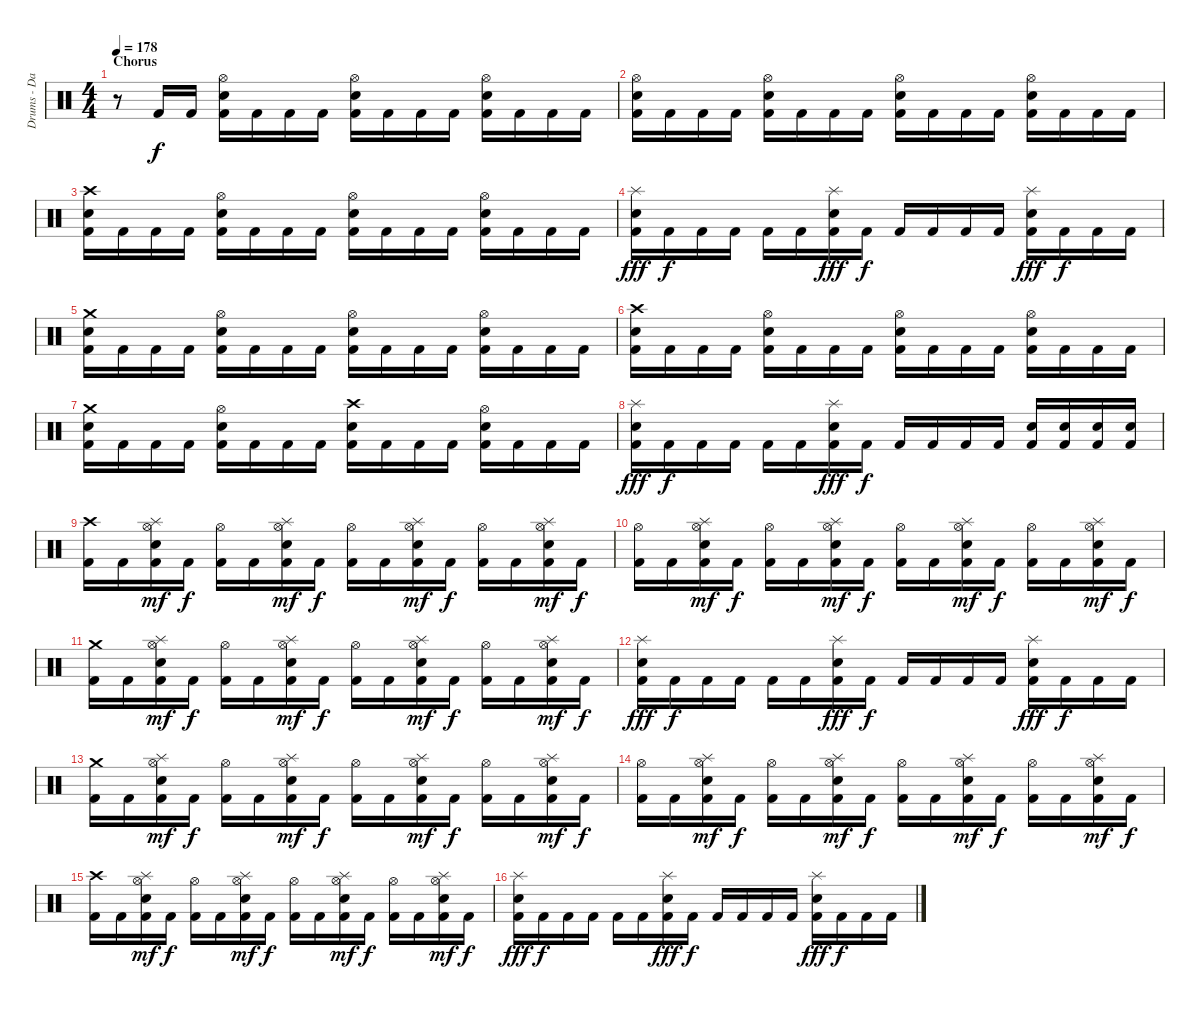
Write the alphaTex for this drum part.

\track ("Drums - Daniel Zimmermann" "Drums - Da") {instrument percussion}
\staff {score}
\articulation defaults
\ts (4 4)
\section ("" "Chorus")
\tempo 178
\clef neutral
\ks c
r.8{dy f} "Kick (hit) 2".16 "Kick (hit) 2".16 ("Kick (hit) 2" "Electric Snare (hit)" "Hi-Hat (open)").16 "Kick (hit) 2".16 "Kick (hit) 2".16 "Kick (hit) 2".16 ("Kick (hit) 2" "Electric Snare (hit)" "Hi-Hat (open)").16 "Kick (hit) 2".16 "Kick (hit) 2".16 "Kick (hit) 2".16 ("Kick (hit) 2" "Electric Snare (hit)" "Hi-Hat (open)").16 "Kick (hit) 2".16 "Kick (hit) 2".16 "Kick (hit) 2".16 |
("Kick (hit) 2" "Electric Snare (hit)" "Hi-Hat (open)").16 "Kick (hit) 2".16 "Kick (hit) 2".16 "Kick (hit) 2".16 ("Kick (hit) 2" "Electric Snare (hit)" "Hi-Hat (open)").16 "Kick (hit) 2".16 "Kick (hit) 2".16 "Kick (hit) 2".16 ("Kick (hit) 2" "Electric Snare (hit)" "Hi-Hat (open)").16 "Kick (hit) 2".16 "Kick (hit) 2".16 "Kick (hit) 2".16 ("Kick (hit) 2" "Electric Snare (hit)" "Hi-Hat (open)").16 "Kick (hit) 2".16 "Kick (hit) 2".16 "Kick (hit) 2".16 |
("Kick (hit) 2" "Electric Snare (hit)" "Crash high (hit)").16 "Kick (hit) 2".16 "Kick (hit) 2".16 "Kick (hit) 2".16 ("Kick (hit) 2" "Electric Snare (hit)" "Hi-Hat (open)").16 "Kick (hit) 2".16 "Kick (hit) 2".16 "Kick (hit) 2".16 ("Kick (hit) 2" "Electric Snare (hit)" "Hi-Hat (open)").16 "Kick (hit) 2".16 "Kick (hit) 2".16 "Kick (hit) 2".16 ("Kick (hit) 2" "Electric Snare (hit)" "Hi-Hat (open)").16 "Kick (hit) 2".16 "Kick (hit) 2".16 "Kick (hit) 2".16 |
("Kick (hit) 2" "Electric Snare (hit)" "Splash (hit)").16{dy fff} "Kick (hit) 2".16{dy f} "Kick (hit) 2".16 "Kick (hit) 2".16 "Kick (hit) 2".16 "Kick (hit) 2".16 ("Kick (hit) 2" "Electric Snare (hit)" "Splash (hit)").16{dy fff} "Kick (hit) 2".16{dy f} "Kick (hit) 2".16 "Kick (hit) 2".16 "Kick (hit) 2".16 "Kick (hit) 2".16 ("Kick (hit) 2" "Electric Snare (hit)" "Splash (hit)").16{dy fff} "Kick (hit) 2".16{dy f} "Kick (hit) 2".16 "Kick (hit) 2".16 |
("Kick (hit) 2" "Electric Snare (hit)" "Crash medium (hit)").16 "Kick (hit) 2".16 "Kick (hit) 2".16 "Kick (hit) 2".16 ("Kick (hit) 2" "Electric Snare (hit)" "Hi-Hat (open)").16 "Kick (hit) 2".16 "Kick (hit) 2".16 "Kick (hit) 2".16 ("Kick (hit) 2" "Electric Snare (hit)" "Hi-Hat (open)").16 "Kick (hit) 2".16 "Kick (hit) 2".16 "Kick (hit) 2".16 ("Kick (hit) 2" "Electric Snare (hit)" "Hi-Hat (open)").16 "Kick (hit) 2".16 "Kick (hit) 2".16 "Kick (hit) 2".16 |
("Kick (hit) 2" "Electric Snare (hit)" "Crash high (hit)").16 "Kick (hit) 2".16 "Kick (hit) 2".16 "Kick (hit) 2".16 ("Kick (hit) 2" "Electric Snare (hit)" "Hi-Hat (open)").16 "Kick (hit) 2".16 "Kick (hit) 2".16 "Kick (hit) 2".16 ("Kick (hit) 2" "Electric Snare (hit)" "Hi-Hat (open)").16 "Kick (hit) 2".16 "Kick (hit) 2".16 "Kick (hit) 2".16 ("Kick (hit) 2" "Electric Snare (hit)" "Hi-Hat (open)").16 "Kick (hit) 2".16 "Kick (hit) 2".16 "Kick (hit) 2".16 |
("Kick (hit) 2" "Electric Snare (hit)" "Crash medium (hit)").16 "Kick (hit) 2".16 "Kick (hit) 2".16 "Kick (hit) 2".16 ("Kick (hit) 2" "Electric Snare (hit)" "Hi-Hat (open)").16 "Kick (hit) 2".16 "Kick (hit) 2".16 "Kick (hit) 2".16 ("Kick (hit) 2" "Electric Snare (hit)" "Crash high (hit)").16 "Kick (hit) 2".16 "Kick (hit) 2".16 "Kick (hit) 2".16 ("Kick (hit) 2" "Electric Snare (hit)" "Hi-Hat (open)").16 "Kick (hit) 2".16 "Kick (hit) 2".16 "Kick (hit) 2".16 |
("Kick (hit) 2" "Electric Snare (hit)" "Splash (hit)").16{dy fff} "Kick (hit) 2".16{dy f} "Kick (hit) 2".16 "Kick (hit) 2".16 "Kick (hit) 2".16 "Kick (hit) 2".16 ("Kick (hit) 2" "Electric Snare (hit)" "Splash (hit)").16{dy fff} "Kick (hit) 2".16{dy f} "Kick (hit) 2".16 "Kick (hit) 2".16 "Kick (hit) 2".16 "Kick (hit) 2".16 ("Kick (hit) 2" "Electric Snare (hit)").16 ("Kick (hit) 2" "Electric Snare (hit)").16 ("Kick (hit) 2" "Electric Snare (hit)").16 ("Kick (hit) 2" "Electric Snare (hit)").16 |
("Kick (hit) 2" "Crash high (hit)").16 "Kick (hit) 2".16 ("Kick (hit) 2" "Electric Snare (hit)" "Hi-Hat (open)" "Splash (hit)").16{dy mf} "Kick (hit) 2".16{dy f} ("Kick (hit) 2" "Hi-Hat (open)").16 "Kick (hit) 2".16 ("Kick (hit) 2" "Electric Snare (hit)" "Hi-Hat (open)" "Splash (hit)").16{dy mf} "Kick (hit) 2".16{dy f} ("Kick (hit) 2" "Hi-Hat (open)").16 "Kick (hit) 2".16 ("Kick (hit) 2" "Electric Snare (hit)" "Hi-Hat (open)" "Splash (hit)").16{dy mf} "Kick (hit) 2".16{dy f} ("Kick (hit) 2" "Hi-Hat (open)").16 "Kick (hit) 2".16 ("Kick (hit) 2" "Electric Snare (hit)" "Hi-Hat (open)" "Splash (hit)").16{dy mf} "Kick (hit) 2".16{dy f} |
("Kick (hit) 2" "Hi-Hat (open)").16 "Kick (hit) 2".16 ("Kick (hit) 2" "Electric Snare (hit)" "Hi-Hat (open)" "Splash (hit)").16{dy mf} "Kick (hit) 2".16{dy f} ("Kick (hit) 2" "Hi-Hat (open)").16 "Kick (hit) 2".16 ("Kick (hit) 2" "Electric Snare (hit)" "Hi-Hat (open)" "Splash (hit)").16{dy mf} "Kick (hit) 2".16{dy f} ("Kick (hit) 2" "Hi-Hat (open)").16 "Kick (hit) 2".16 ("Kick (hit) 2" "Electric Snare (hit)" "Hi-Hat (open)" "Splash (hit)").16{dy mf} "Kick (hit) 2".16{dy f} ("Kick (hit) 2" "Hi-Hat (open)").16 "Kick (hit) 2".16 ("Kick (hit) 2" "Electric Snare (hit)" "Hi-Hat (open)" "Splash (hit)").16{dy mf} "Kick (hit) 2".16{dy f} |
("Kick (hit) 2" "Crash medium (hit)").16 "Kick (hit) 2".16 ("Kick (hit) 2" "Electric Snare (hit)" "Hi-Hat (open)" "Splash (hit)").16{dy mf} "Kick (hit) 2".16{dy f} ("Kick (hit) 2" "Hi-Hat (open)").16 "Kick (hit) 2".16 ("Kick (hit) 2" "Electric Snare (hit)" "Hi-Hat (open)" "Splash (hit)").16{dy mf} "Kick (hit) 2".16{dy f} ("Kick (hit) 2" "Hi-Hat (open)").16 "Kick (hit) 2".16 ("Kick (hit) 2" "Electric Snare (hit)" "Hi-Hat (open)" "Splash (hit)").16{dy mf} "Kick (hit) 2".16{dy f} ("Kick (hit) 2" "Hi-Hat (open)").16 "Kick (hit) 2".16 ("Kick (hit) 2" "Electric Snare (hit)" "Hi-Hat (open)" "Splash (hit)").16{dy mf} "Kick (hit) 2".16{dy f} |
("Kick (hit) 2" "Electric Snare (hit)" "Splash (hit)").16{dy fff} "Kick (hit) 2".16{dy f} "Kick (hit) 2".16 "Kick (hit) 2".16 "Kick (hit) 2".16 "Kick (hit) 2".16 ("Kick (hit) 2" "Electric Snare (hit)" "Splash (hit)").16{dy fff} "Kick (hit) 2".16{dy f} "Kick (hit) 2".16 "Kick (hit) 2".16 "Kick (hit) 2".16 "Kick (hit) 2".16 ("Kick (hit) 2" "Electric Snare (hit)" "Splash (hit)").16{dy fff} "Kick (hit) 2".16{dy f} "Kick (hit) 2".16 "Kick (hit) 2".16 |
("Kick (hit) 2" "Crash medium (hit)").16 "Kick (hit) 2".16 ("Kick (hit) 2" "Electric Snare (hit)" "Hi-Hat (open)" "Splash (hit)").16{dy mf} "Kick (hit) 2".16{dy f} ("Kick (hit) 2" "Hi-Hat (open)").16 "Kick (hit) 2".16 ("Kick (hit) 2" "Electric Snare (hit)" "Hi-Hat (open)" "Splash (hit)").16{dy mf} "Kick (hit) 2".16{dy f} ("Kick (hit) 2" "Hi-Hat (open)").16 "Kick (hit) 2".16 ("Kick (hit) 2" "Electric Snare (hit)" "Hi-Hat (open)" "Splash (hit)").16{dy mf} "Kick (hit) 2".16{dy f} ("Kick (hit) 2" "Hi-Hat (open)").16 "Kick (hit) 2".16 ("Kick (hit) 2" "Electric Snare (hit)" "Hi-Hat (open)" "Splash (hit)").16{dy mf} "Kick (hit) 2".16{dy f} |
("Kick (hit) 2" "Hi-Hat (open)").16 "Kick (hit) 2".16 ("Kick (hit) 2" "Electric Snare (hit)" "Hi-Hat (open)" "Splash (hit)").16{dy mf} "Kick (hit) 2".16{dy f} ("Kick (hit) 2" "Hi-Hat (open)").16 "Kick (hit) 2".16 ("Kick (hit) 2" "Electric Snare (hit)" "Hi-Hat (open)" "Splash (hit)").16{dy mf} "Kick (hit) 2".16{dy f} ("Kick (hit) 2" "Hi-Hat (open)").16 "Kick (hit) 2".16 ("Kick (hit) 2" "Electric Snare (hit)" "Hi-Hat (open)" "Splash (hit)").16{dy mf} "Kick (hit) 2".16{dy f} ("Kick (hit) 2" "Hi-Hat (open)").16 "Kick (hit) 2".16 ("Kick (hit) 2" "Electric Snare (hit)" "Hi-Hat (open)" "Splash (hit)").16{dy mf} "Kick (hit) 2".16{dy f} |
("Kick (hit) 2" "Crash high (hit)").16 "Kick (hit) 2".16 ("Kick (hit) 2" "Electric Snare (hit)" "Hi-Hat (open)" "Splash (hit)").16{dy mf} "Kick (hit) 2".16{dy f} ("Kick (hit) 2" "Hi-Hat (open)").16 "Kick (hit) 2".16 ("Kick (hit) 2" "Electric Snare (hit)" "Hi-Hat (open)" "Splash (hit)").16{dy mf} "Kick (hit) 2".16{dy f} ("Kick (hit) 2" "Hi-Hat (open)").16 "Kick (hit) 2".16 ("Kick (hit) 2" "Electric Snare (hit)" "Hi-Hat (open)" "Splash (hit)").16{dy mf} "Kick (hit) 2".16{dy f} ("Kick (hit) 2" "Hi-Hat (open)").16 "Kick (hit) 2".16 ("Kick (hit) 2" "Electric Snare (hit)" "Hi-Hat (open)" "Splash (hit)").16{dy mf} "Kick (hit) 2".16{dy f} |
("Kick (hit) 2" "Electric Snare (hit)" "Splash (hit)").16{dy fff} "Kick (hit) 2".16{dy f} "Kick (hit) 2".16 "Kick (hit) 2".16 "Kick (hit) 2".16 "Kick (hit) 2".16 ("Kick (hit) 2" "Electric Snare (hit)" "Splash (hit)").16{dy fff} "Kick (hit) 2".16{dy f} "Kick (hit) 2".16 "Kick (hit) 2".16 "Kick (hit) 2".16 "Kick (hit) 2".16 ("Kick (hit) 2" "Electric Snare (hit)" "Splash (hit)").16{dy fff} "Kick (hit) 2".16{dy f} "Kick (hit) 2".16 "Kick (hit) 2".16
